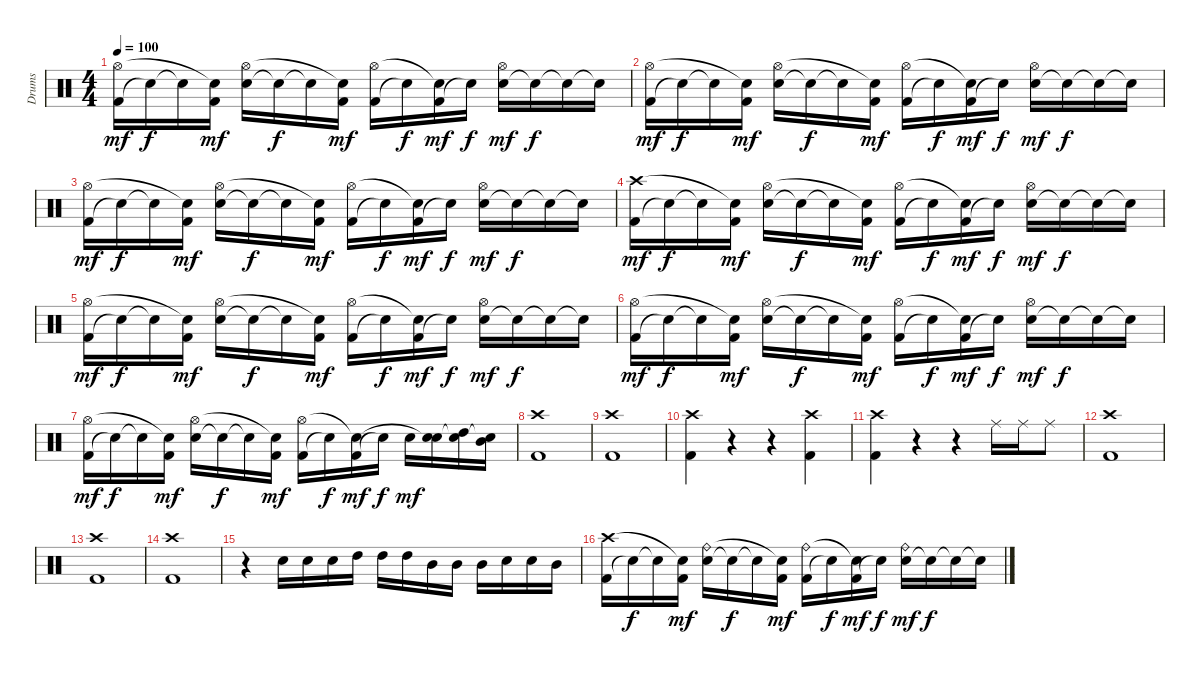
\track ("Drums" "Drums") {instrument percussion}
\staff {score}
\articulation defaults
\ts (4 4)
\tempo 100
\clef neutral
\ks c
("Kick (hit) 2" "Hi-Hat (open)").16{dy mf} "Snare (hit)"{t}.16{dy f} "Snare (hit)"{t}.16 ("Kick (hit) 2" "Snare (hit)"{t}).16{dy mf} ("Snare (hit) 2" "Hi-Hat (open)").16 "Snare (hit)"{t}.16{dy f} "Snare (hit)"{t}.16 ("Kick (hit) 2" "Snare (hit)"{t}).16{dy mf} ("Kick (hit) 2" "Hi-Hat (open)").16 "Snare (hit)"{t}.16{dy f} ("Kick (hit) 2" "Snare (hit)"{t}).16{dy mf} "Snare (hit)"{t}.16{dy f} ("Snare (hit) 2" "Hi-Hat (open)").16{dy mf} "Snare (hit)"{t}.16{dy f} "Snare (hit)"{t}.16 "Snare (hit)"{t}.16 |
("Kick (hit) 2" "Hi-Hat (open)").16{dy mf} "Snare (hit)"{t}.16{dy f} "Snare (hit)"{t}.16 ("Kick (hit) 2" "Snare (hit)"{t}).16{dy mf} ("Snare (hit) 2" "Hi-Hat (open)").16 "Snare (hit)"{t}.16{dy f} "Snare (hit)"{t}.16 ("Kick (hit) 2" "Snare (hit)"{t}).16{dy mf} ("Kick (hit) 2" "Hi-Hat (open)").16 "Snare (hit)"{t}.16{dy f} ("Kick (hit) 2" "Snare (hit)"{t}).16{dy mf} "Snare (hit)"{t}.16{dy f} ("Snare (hit) 2" "Hi-Hat (open)").16{dy mf} "Snare (hit)"{t}.16{dy f} "Snare (hit)"{t}.16 "Snare (hit)"{t}.16 |
("Kick (hit) 2" "Hi-Hat (open)").16{dy mf} "Snare (hit)"{t}.16{dy f} "Snare (hit)"{t}.16 ("Kick (hit) 2" "Snare (hit)"{t}).16{dy mf} ("Snare (hit) 2" "Hi-Hat (open)").16 "Snare (hit)"{t}.16{dy f} "Snare (hit)"{t}.16 ("Kick (hit) 2" "Snare (hit)"{t}).16{dy mf} ("Kick (hit) 2" "Hi-Hat (open)").16 "Snare (hit)"{t}.16{dy f} ("Kick (hit) 2" "Snare (hit)"{t}).16{dy mf} "Snare (hit)"{t}.16{dy f} ("Snare (hit) 2" "Hi-Hat (open)").16{dy mf} "Snare (hit)"{t}.16{dy f} "Snare (hit)"{t}.16 "Snare (hit)"{t}.16 |
("Kick (hit) 2" "Crash high (hit)").16{dy mf} "Snare (hit)"{t}.16{dy f} "Snare (hit)"{t}.16 ("Kick (hit) 2" "Snare (hit)"{t}).16{dy mf} ("Snare (hit) 2" "Hi-Hat (open)").16 "Snare (hit)"{t}.16{dy f} "Snare (hit)"{t}.16 ("Kick (hit) 2" "Snare (hit)"{t}).16{dy mf} ("Kick (hit) 2" "Hi-Hat (open)").16 "Snare (hit)"{t}.16{dy f} ("Kick (hit) 2" "Snare (hit)"{t}).16{dy mf} "Snare (hit)"{t}.16{dy f} ("Snare (hit) 2" "Hi-Hat (open)").16{dy mf} "Snare (hit)"{t}.16{dy f} "Snare (hit)"{t}.16 "Snare (hit)"{t}.16 |
("Kick (hit) 2" "Hi-Hat (open)").16{dy mf} "Snare (hit)"{t}.16{dy f} "Snare (hit)"{t}.16 ("Kick (hit) 2" "Snare (hit)"{t}).16{dy mf} ("Snare (hit) 2" "Hi-Hat (open)").16 "Snare (hit)"{t}.16{dy f} "Snare (hit)"{t}.16 ("Kick (hit) 2" "Snare (hit)"{t}).16{dy mf} ("Kick (hit) 2" "Hi-Hat (open)").16 "Snare (hit)"{t}.16{dy f} ("Kick (hit) 2" "Snare (hit)"{t}).16{dy mf} "Snare (hit)"{t}.16{dy f} ("Snare (hit) 2" "Hi-Hat (open)").16{dy mf} "Snare (hit)"{t}.16{dy f} "Snare (hit)"{t}.16 "Snare (hit)"{t}.16 |
("Kick (hit) 2" "Hi-Hat (open)").16{dy mf} "Snare (hit)"{t}.16{dy f} "Snare (hit)"{t}.16 ("Kick (hit) 2" "Snare (hit)"{t}).16{dy mf} ("Snare (hit) 2" "Hi-Hat (open)").16 "Snare (hit)"{t}.16{dy f} "Snare (hit)"{t}.16 ("Kick (hit) 2" "Snare (hit)"{t}).16{dy mf} ("Kick (hit) 2" "Hi-Hat (open)").16 "Snare (hit)"{t}.16{dy f} ("Kick (hit) 2" "Snare (hit)"{t}).16{dy mf} "Snare (hit)"{t}.16{dy f} ("Snare (hit) 2" "Hi-Hat (open)").16{dy mf} "Snare (hit)"{t}.16{dy f} "Snare (hit)"{t}.16 "Snare (hit)"{t}.16 |
("Kick (hit) 2" "Hi-Hat (open)").16{dy mf} "Snare (hit)"{t}.16{dy f} "Snare (hit)"{t}.16 ("Kick (hit) 2" "Snare (hit)"{t}).16{dy mf} ("Snare (hit) 2" "Hi-Hat (open)").16 "Snare (hit)"{t}.16{dy f} "Snare (hit)"{t}.16 ("Kick (hit) 2" "Snare (hit)"{t}).16{dy mf} ("Kick (hit) 2" "Hi-Hat (open)").16 "Snare (hit)"{t}.16{dy f} ("Kick (hit) 2" "Snare (hit)"{t}).16{dy mf} "Snare (hit)"{t}.16{dy f} "Snare (hit) 2".16{dy mf} ("Snare (hit) 2" "Snare (hit)"{t}).16 ("High Tom (hit)" "Snare (hit)"{t}).16 ("Mid Tom (hit)" "Snare (hit)"{t}).16 |
("Crash high (hit)" "Kick (hit) 2").1 |
("Crash high (hit)" "Kick (hit) 2").1 |
("Crash high (hit)" "Kick (hit) 2").4 r.4 r.4 ("Crash high (hit)" "Kick (hit) 2").4 |
("Crash high (hit)" "Kick (hit) 2").4 r.4 r.4 "Ride (middle)".16 "Ride (middle)".16 "Ride (middle)".8 |
("Crash high (hit)" "Kick (hit) 2").1 |
("Crash high (hit)" "Kick (hit) 2").1 |
("Crash high (hit)" "Kick (hit) 2").1 |
r.4 "Snare (hit) 2".16 "Snare (hit) 2".16 "Snare (hit) 2".16 "High Tom (hit)".16 "High Tom (hit)".16 "High Tom (hit)".16 "Mid Tom (hit)".16 "Mid Tom (hit)".16 "Mid Tom (hit)".16 "Snare (hit) 2".16 "Snare (hit) 2".16 "Mid Tom (hit)".16 |
("Kick (hit) 2" "Crash high (hit)").16 "Snare (hit)"{t}.16{dy f} "Snare (hit)"{t}.16 ("Kick (hit) 2" "Snare (hit)"{t}).16{dy mf} ("Snare (hit) 2" "Ride (bell)").16 "Snare (hit)"{t}.16{dy f} "Snare (hit)"{t}.16 ("Kick (hit) 2" "Snare (hit)"{t}).16{dy mf} ("Kick (hit) 2" "Ride (bell)").16 "Snare (hit)"{t}.16{dy f} ("Kick (hit) 2" "Snare (hit)"{t}).16{dy mf} "Snare (hit)"{t}.16{dy f} ("Snare (hit) 2" "Ride (bell)").16{dy mf} "Snare (hit)"{t}.16{dy f} "Snare (hit)"{t}.16 "Snare (hit)"{t}.16
